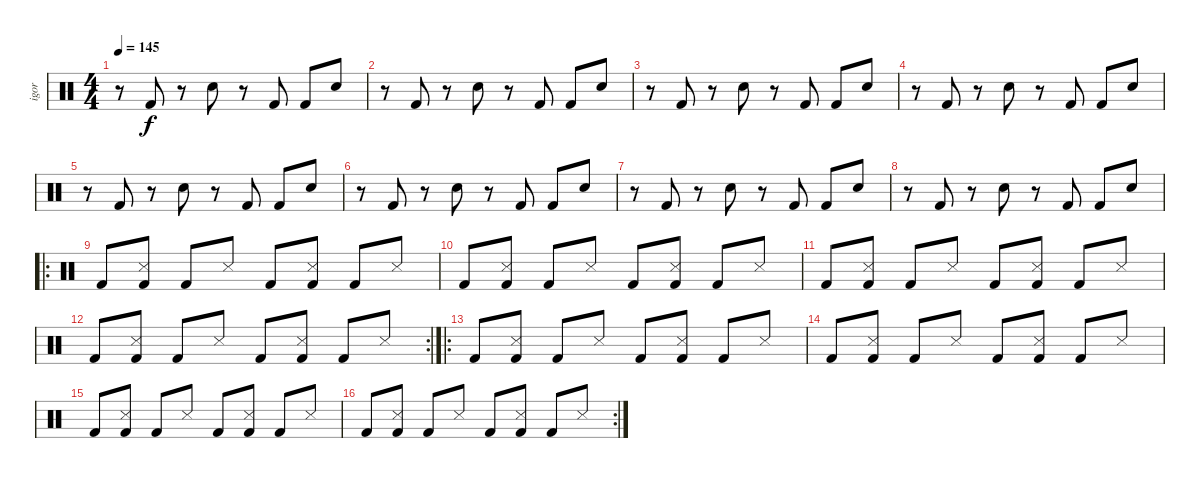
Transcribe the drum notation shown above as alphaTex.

\track ("igor" "igor") {instrument percussion}
\staff {score}
\articulation defaults
\ts (4 4)
\tempo 145
\clef neutral
\ks c
r.8{dy f} "Kick (hit) 2".8 r.8 "Electric Snare (hit)".8 r.8 "Kick (hit) 2".8 "Kick (hit) 2".8 "Electric Snare (hit)".8 |
r.8 "Kick (hit) 2".8 r.8 "Electric Snare (hit)".8 r.8 "Kick (hit) 2".8 "Kick (hit) 2".8 "Electric Snare (hit)".8 |
r.8 "Kick (hit) 2".8 r.8 "Electric Snare (hit)".8 r.8 "Kick (hit) 2".8 "Kick (hit) 2".8 "Electric Snare (hit)".8 |
r.8 "Kick (hit) 2".8 r.8 "Electric Snare (hit)".8 r.8 "Kick (hit) 2".8 "Kick (hit) 2".8 "Electric Snare (hit)".8 |
r.8 "Kick (hit) 2".8 r.8 "Electric Snare (hit)".8 r.8 "Kick (hit) 2".8 "Kick (hit) 2".8 "Electric Snare (hit)".8 |
r.8 "Kick (hit) 2".8 r.8 "Electric Snare (hit)".8 r.8 "Kick (hit) 2".8 "Kick (hit) 2".8 "Electric Snare (hit)".8 |
r.8 "Kick (hit) 2".8 r.8 "Electric Snare (hit)".8 r.8 "Kick (hit) 2".8 "Kick (hit) 2".8 "Electric Snare (hit)".8 |
r.8 "Kick (hit) 2".8 r.8 "Electric Snare (hit)".8 r.8 "Kick (hit) 2".8 "Kick (hit) 2".8 "Electric Snare (hit)".8 |
\ro "Kick (hit) 2".8
("Snare (side stick) 3" "Kick (hit) 2").8 "Kick (hit) 2".8 "Snare (side stick) 3".8 "Kick (hit) 2".8 ("Snare (side stick) 3" "Kick (hit) 2").8 "Kick (hit) 2".8 "Snare (side stick) 3".8 |
"Kick (hit) 2".8 ("Snare (side stick) 3" "Kick (hit) 2").8 "Kick (hit) 2".8 "Snare (side stick) 3".8 "Kick (hit) 2".8 ("Snare (side stick) 3" "Kick (hit) 2").8 "Kick (hit) 2".8 "Snare (side stick) 3".8 |
"Kick (hit) 2".8 ("Snare (side stick) 3" "Kick (hit) 2").8 "Kick (hit) 2".8 "Snare (side stick) 3".8 "Kick (hit) 2".8 ("Snare (side stick) 3" "Kick (hit) 2").8 "Kick (hit) 2".8 "Snare (side stick) 3".8 |
\rc 2 "Kick (hit) 2".8
("Snare (side stick) 3" "Kick (hit) 2").8 "Kick (hit) 2".8 "Snare (side stick) 3".8 "Kick (hit) 2".8 ("Snare (side stick) 3" "Kick (hit) 2").8 "Kick (hit) 2".8 "Snare (side stick) 3".8 |
\ro "Kick (hit) 2".8
("Snare (side stick) 3" "Kick (hit) 2").8 "Kick (hit) 2".8 "Snare (side stick) 3".8 "Kick (hit) 2".8 ("Snare (side stick) 3" "Kick (hit) 2").8 "Kick (hit) 2".8 "Snare (side stick) 3".8 |
"Kick (hit) 2".8 ("Snare (side stick) 3" "Kick (hit) 2").8 "Kick (hit) 2".8 "Snare (side stick) 3".8 "Kick (hit) 2".8 ("Snare (side stick) 3" "Kick (hit) 2").8 "Kick (hit) 2".8 "Snare (side stick) 3".8 |
"Kick (hit) 2".8 ("Snare (side stick) 3" "Kick (hit) 2").8 "Kick (hit) 2".8 "Snare (side stick) 3".8 "Kick (hit) 2".8 ("Snare (side stick) 3" "Kick (hit) 2").8 "Kick (hit) 2".8 "Snare (side stick) 3".8 |
\rc 2 "Kick (hit) 2".8
("Snare (side stick) 3" "Kick (hit) 2").8 "Kick (hit) 2".8 "Snare (side stick) 3".8 "Kick (hit) 2".8 ("Snare (side stick) 3" "Kick (hit) 2").8 "Kick (hit) 2".8 "Snare (side stick) 3".8
